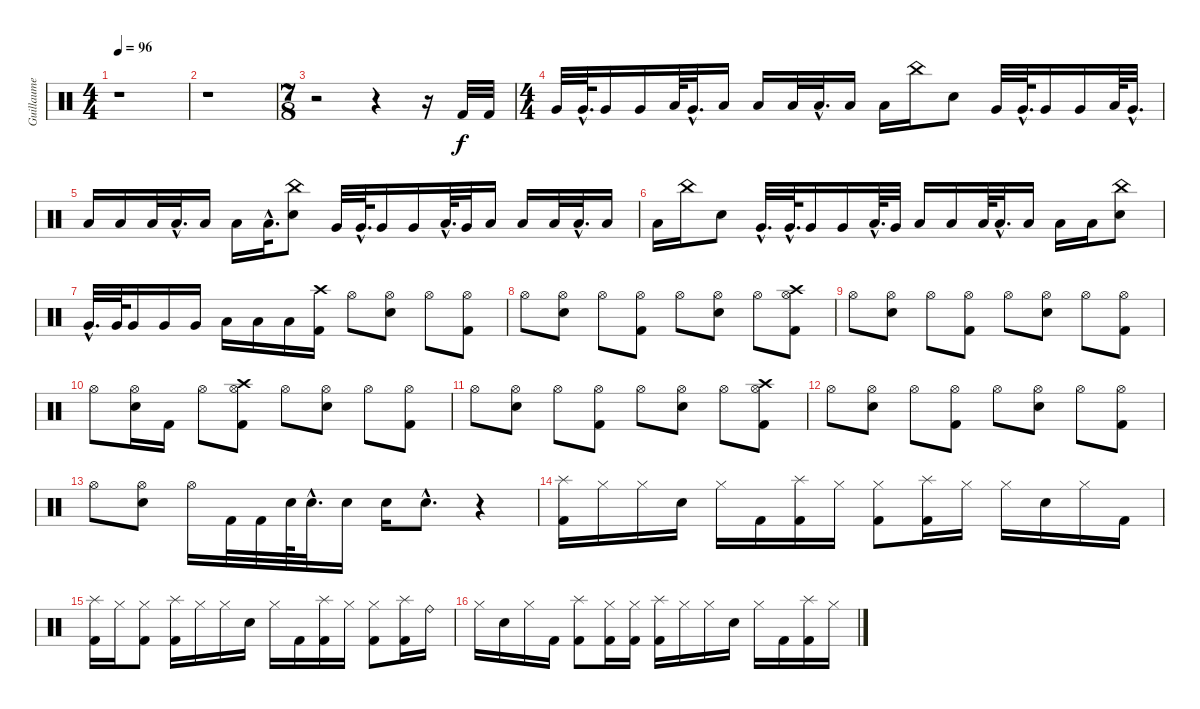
\track ("Guillaume" "Guillaume") {instrument percussion}
\staff {score}
\articulation defaults
\ts (4 4)
\tempo 96
\clef neutral
\ks c
r.1{dy f} |
r.1 |
\ts (7 8)
r.2 r.4 r.16 "Kick (hit) 2".32 "Kick (hit) 2".32 |
\ts (4 4)
\section ("" "")
"Very Low Tom (hit)".32 "Very Low Tom (hit)"{hac}.64{d} "Very Low Tom (hit)".16 "Very Low Tom (hit)".16 "Low Floor Tom (hit)".64 "Very Low Tom (hit)"{hac}.32{d} "Low Floor Tom (hit)".16 "Low Floor Tom (hit)".16 "Low Floor Tom (hit)".32 "Low Floor Tom (hit)"{hac}.32{d} "Low Floor Tom (hit)".16 "Low Floor Tom (hit)".16 "China (hit)".16 "Electric Snare (hit)".8 "Very Low Tom (hit)".32 "Very Low Tom (hit)"{hac}.64{d} "Very Low Tom (hit)".16 "Very Low Tom (hit)".16 "Low Floor Tom (hit)".64 "Very Low Tom (hit)"{hac}.32{d} |
"Low Floor Tom (hit)".16 "Low Floor Tom (hit)".16 "Low Floor Tom (hit)".32 "Low Floor Tom (hit)"{hac}.32{d} "Low Floor Tom (hit)".16 "Low Floor Tom (hit)".16 "Low Floor Tom (hit)"{hac}.32{d} ("China (hit)" "Electric Snare (hit)").8 "Very Low Tom (hit)".32 "Very Low Tom (hit)"{hac}.64{d} "Very Low Tom (hit)".16 "Very Low Tom (hit)".16 "Low Floor Tom (hit)"{hac}.64{d} "Very Low Tom (hit)".32 "Low Floor Tom (hit)".16 "Low Floor Tom (hit)".16 "Low Floor Tom (hit)".32 "Low Floor Tom (hit)"{hac}.32{d} "Low Floor Tom (hit)".16 |
"Low Floor Tom (hit)".16 "China (hit)".16 "Electric Snare (hit)".8 "Very Low Tom (hit)"{hac}.32{d} "Very Low Tom (hit)"{hac}.64{d} "Very Low Tom (hit)".16 "Very Low Tom (hit)".16 "Low Floor Tom (hit)"{hac}.64{d} "Very Low Tom (hit)".32 "Low Floor Tom (hit)".16 "Low Floor Tom (hit)".16 "Low Floor Tom (hit)".64 "Low Floor Tom (hit)"{hac}.32{d} "Low Floor Tom (hit)".16 "Low Floor Tom (hit)".16 "Low Floor Tom (hit)".16 ("China (hit)" "Electric Snare (hit)").8 |
"Very Low Tom (hit)"{hac}.32{d} "Very Low Tom (hit)".64 "Very Low Tom (hit)".16 "Very Low Tom (hit)".16 "Very Low Tom (hit)".16 "Low Floor Tom (hit)".16 "Low Floor Tom (hit)".16 "Low Floor Tom (hit)".16 ("Crash high (hit)" "Kick (hit) 2").16 "Hi-Hat (open)".8 ("Hi-Hat (open)" "Electric Snare (hit)").8 "Hi-Hat (open)".8 ("Hi-Hat (open)" "Kick (hit) 2").8 |
"Hi-Hat (open)".8 ("Hi-Hat (open)" "Electric Snare (hit)").8 "Hi-Hat (open)".8 ("Hi-Hat (open)" "Kick (hit) 2").8 "Hi-Hat (open)".8 ("Hi-Hat (open)" "Electric Snare (hit)").8 "Hi-Hat (open)".8 ("Crash high (hit)" "Hi-Hat (open)" "Kick (hit) 2").8 |
"Hi-Hat (open)".8 ("Hi-Hat (open)" "Electric Snare (hit)").8 "Hi-Hat (open)".8 ("Hi-Hat (open)" "Kick (hit) 2").8 "Hi-Hat (open)".8 ("Hi-Hat (open)" "Electric Snare (hit)").8 "Hi-Hat (open)".8 ("Hi-Hat (open)" "Kick (hit) 2").8 |
"Hi-Hat (open)".8 ("Hi-Hat (open)" "Electric Snare (hit)").16 "Kick (hit) 2".16 "Hi-Hat (open)".8 ("Crash high (hit)" "Hi-Hat (open)" "Kick (hit) 2").8 "Hi-Hat (open)".8 ("Hi-Hat (open)" "Electric Snare (hit)").8 "Hi-Hat (open)".8 ("Hi-Hat (open)" "Kick (hit) 2").8 |
"Hi-Hat (open)".8 ("Hi-Hat (open)" "Electric Snare (hit)").8 "Hi-Hat (open)".8 ("Hi-Hat (open)" "Kick (hit) 2").8 "Hi-Hat (open)".8 ("Hi-Hat (open)" "Electric Snare (hit)").8 "Hi-Hat (open)".8 ("Crash high (hit)" "Hi-Hat (open)" "Kick (hit) 2").8 |
"Hi-Hat (open)".8 ("Hi-Hat (open)" "Electric Snare (hit)").8 "Hi-Hat (open)".8 ("Hi-Hat (open)" "Kick (hit) 2").8 "Hi-Hat (open)".8 ("Hi-Hat (open)" "Electric Snare (hit)").8 "Hi-Hat (open)".8 ("Hi-Hat (open)" "Kick (hit) 2").8 |
"Hi-Hat (open)".8 ("Hi-Hat (open)" "Electric Snare (hit)").8 "Hi-Hat (open)".16 "Kick (hit) 2".32 "Kick (hit) 2".32 "Electric Snare (hit)".64 "Electric Snare (hit)"{hac}.32{d} "Electric Snare (hit)".16 "Electric Snare (hit)".16 "Electric Snare (hit)"{hac}.8{d} r.4 |
\section ("" "")
("Splash (hit)" "Kick (hit) 2").16 "Hi-Hat (closed)".16 "Hi-Hat (closed)".16 "Electric Snare (hit)".16 "Hi-Hat (closed)".16 "Kick (hit) 2".16 ("Splash (hit)" "Kick (hit) 2").16 "Hi-Hat (closed)".16 ("Hi-Hat (closed)" "Kick (hit) 2").8 ("Splash (hit)" "Kick (hit) 2").16 "Hi-Hat (closed)".16 "Hi-Hat (closed)".16 "Electric Snare (hit)".16 "Hi-Hat (closed)".16 "Kick (hit) 2".16 |
("Splash (hit)" "Kick (hit) 2").16 "Hi-Hat (closed)".16 ("Hi-Hat (closed)" "Kick (hit) 2").8 ("Splash (hit)" "Kick (hit) 2").16 "Hi-Hat (closed)".16 "Hi-Hat (closed)".16 "Electric Snare (hit)".16 "Hi-Hat (closed)".16 "Kick (hit) 2".16 ("Splash (hit)" "Kick (hit) 2").16 "Hi-Hat (closed)".16 ("Hi-Hat (closed)" "Kick (hit) 2").8 ("Splash (hit)" "Kick (hit) 2").16 "Ride (bell)".16 |
"Hi-Hat (closed)".16 "Electric Snare (hit)".16 "Hi-Hat (closed)".16 "Kick (hit) 2".16 ("Splash (hit)" "Kick (hit) 2").8 ("Kick (hit) 2" "Hi-Hat (closed)").16 ("Hi-Hat (closed)" "Kick (hit) 2").16 ("Splash (hit)" "Kick (hit) 2").16 "Hi-Hat (closed)".16 "Hi-Hat (closed)".16 "Electric Snare (hit)".16 "Hi-Hat (closed)".16 "Kick (hit) 2".16 ("Splash (hit)" "Kick (hit) 2").16 "Hi-Hat (closed)".16
